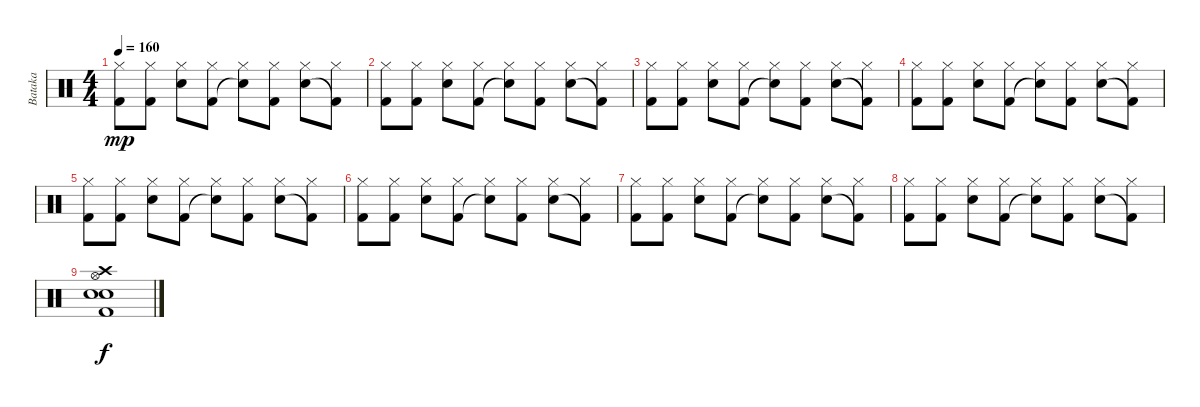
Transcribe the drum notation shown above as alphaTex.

\track ("Bataka" "Bataka") {instrument percussion}
\staff {score}
\articulation defaults
\ts (4 4)
\tempo 160
\clef neutral
\ks c
("Hi-Hat (closed)" "Kick (hit) 2").8{dy mp} ("Hi-Hat (closed)" "Kick (hit) 2").8 ("Hi-Hat (closed)" "Electric Snare (hit)").8 ("Hi-Hat (closed)" "Kick (hit) 2").8 ("Hi-Hat (closed)" "Electric Snare (hit)"{t}).8 ("Hi-Hat (closed)" "Kick (hit) 2").8 ("Hi-Hat (closed)" "Electric Snare (hit)").8 ("Hi-Hat (closed)" "Kick (hit) 2"{t}).8 |
("Hi-Hat (closed)" "Kick (hit) 2").8 ("Hi-Hat (closed)" "Kick (hit) 2").8 ("Hi-Hat (closed)" "Electric Snare (hit)").8 ("Hi-Hat (closed)" "Kick (hit) 2").8 ("Hi-Hat (closed)" "Electric Snare (hit)"{t}).8 ("Hi-Hat (closed)" "Kick (hit) 2").8 ("Hi-Hat (closed)" "Electric Snare (hit)").8 ("Hi-Hat (closed)" "Kick (hit) 2"{t}).8 |
("Hi-Hat (closed)" "Kick (hit) 2").8 ("Hi-Hat (closed)" "Kick (hit) 2").8 ("Hi-Hat (closed)" "Electric Snare (hit)").8 ("Hi-Hat (closed)" "Kick (hit) 2").8 ("Hi-Hat (closed)" "Electric Snare (hit)"{t}).8 ("Hi-Hat (closed)" "Kick (hit) 2").8 ("Hi-Hat (closed)" "Electric Snare (hit)").8 ("Hi-Hat (closed)" "Kick (hit) 2"{t}).8 |
("Hi-Hat (closed)" "Kick (hit) 2").8 ("Hi-Hat (closed)" "Kick (hit) 2").8 ("Hi-Hat (closed)" "Electric Snare (hit)").8 ("Hi-Hat (closed)" "Kick (hit) 2").8 ("Hi-Hat (closed)" "Electric Snare (hit)"{t}).8 ("Hi-Hat (closed)" "Kick (hit) 2").8 ("Hi-Hat (closed)" "Electric Snare (hit)").8 ("Hi-Hat (closed)" "Kick (hit) 2"{t}).8 |
("Hi-Hat (closed)" "Kick (hit) 2").8 ("Hi-Hat (closed)" "Kick (hit) 2").8 ("Hi-Hat (closed)" "Electric Snare (hit)").8 ("Hi-Hat (closed)" "Kick (hit) 2").8 ("Hi-Hat (closed)" "Electric Snare (hit)"{t}).8 ("Hi-Hat (closed)" "Kick (hit) 2").8 ("Hi-Hat (closed)" "Electric Snare (hit)").8 ("Hi-Hat (closed)" "Kick (hit) 2"{t}).8 |
("Hi-Hat (closed)" "Kick (hit) 2").8 ("Hi-Hat (closed)" "Kick (hit) 2").8 ("Hi-Hat (closed)" "Electric Snare (hit)").8 ("Hi-Hat (closed)" "Kick (hit) 2").8 ("Hi-Hat (closed)" "Electric Snare (hit)"{t}).8 ("Hi-Hat (closed)" "Kick (hit) 2").8 ("Hi-Hat (closed)" "Electric Snare (hit)").8 ("Hi-Hat (closed)" "Kick (hit) 2"{t}).8 |
("Hi-Hat (closed)" "Kick (hit) 2").8 ("Hi-Hat (closed)" "Kick (hit) 2").8 ("Hi-Hat (closed)" "Electric Snare (hit)").8 ("Hi-Hat (closed)" "Kick (hit) 2").8 ("Hi-Hat (closed)" "Electric Snare (hit)"{t}).8 ("Hi-Hat (closed)" "Kick (hit) 2").8 ("Hi-Hat (closed)" "Electric Snare (hit)").8 ("Hi-Hat (closed)" "Kick (hit) 2"{t}).8 |
("Hi-Hat (closed)" "Kick (hit) 2").8 ("Hi-Hat (closed)" "Kick (hit) 2").8 ("Hi-Hat (closed)" "Electric Snare (hit)").8 ("Hi-Hat (closed)" "Kick (hit) 2").8 ("Hi-Hat (closed)" "Electric Snare (hit)"{t}).8 ("Hi-Hat (closed)" "Kick (hit) 2").8 ("Hi-Hat (closed)" "Electric Snare (hit)").8 ("Hi-Hat (closed)" "Kick (hit) 2"{t}).8 |
("Snare (hit) 2" "Kick (hit) 2" "Electric Snare (hit)" "Hi-Hat (open)" "Crash high (hit)").1{dy f}
